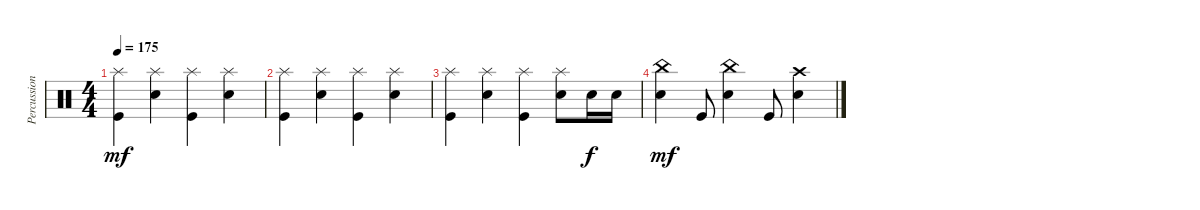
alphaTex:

\track ("Percussion" "Percussion") {instrument percussion}
\staff {score}
\articulation defaults
\ts (4 4)
\tempo 175
\clef neutral
\ks c
("Splash (hit)" "Kick (hit)").4{dy mf} ("Splash (hit)" "Snare (hit) 2").4 ("Splash (hit)" "Kick (hit)").4 ("Splash (hit)" "Snare (hit) 2").4 |
("Splash (hit)" "Kick (hit)").4 ("Splash (hit)" "Snare (hit) 2").4 ("Splash (hit)" "Kick (hit)").4 ("Splash (hit)" "Snare (hit) 2").4 |
("Splash (hit)" "Kick (hit)").4 ("Splash (hit)" "Snare (hit) 2").4 ("Splash (hit)" "Kick (hit)").4 ("Splash (hit)" "Snare (hit) 2").8 "Snare (hit) 2".16{dy f} "Snare (hit) 2".16 |
("China (hit)" "Snare (hit) 2").4{dy mf} "Kick (hit)".8 ("China (hit)" "Snare (hit) 2").4 "Kick (hit)".8 ("Crash high (hit)" "Snare (hit) 2").4
